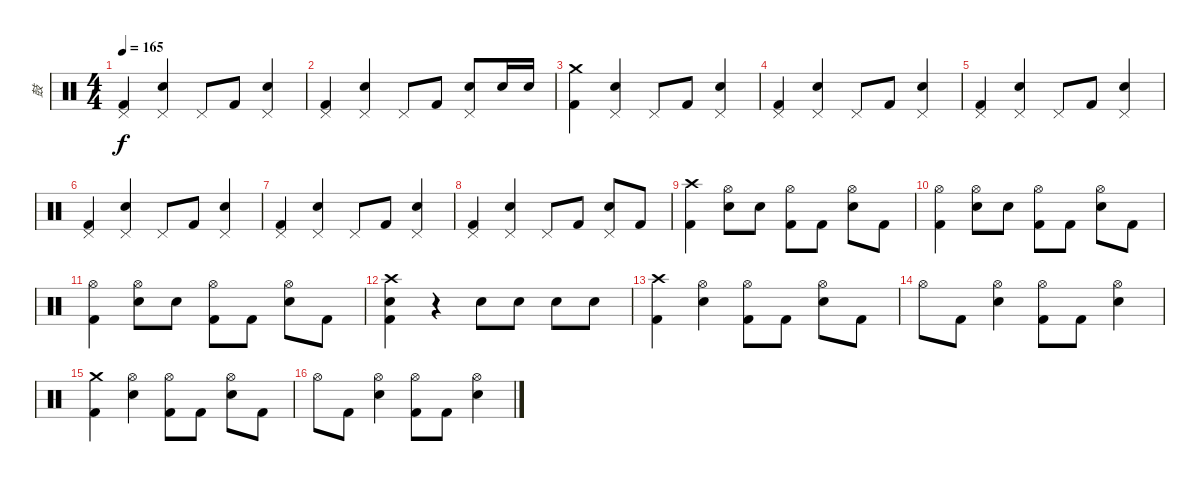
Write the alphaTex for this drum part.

\track ("鼓" "鼓") {instrument percussion}
\staff {score}
\articulation defaults
\ts (4 4)
\tempo 165
\clef neutral
\ks c
("Pedal Hi-Hat (hit)" "Kick (hit) 2").4{dy f} ("Pedal Hi-Hat (hit)" "Snare (hit) 2").4 "Pedal Hi-Hat (hit)".8 "Kick (hit) 2".8 ("Pedal Hi-Hat (hit)" "Snare (hit) 2").4 |
("Pedal Hi-Hat (hit)" "Kick (hit) 2").4 ("Pedal Hi-Hat (hit)" "Snare (hit) 2").4 "Pedal Hi-Hat (hit)".8 "Kick (hit) 2".8 ("Pedal Hi-Hat (hit)" "Snare (hit) 2").8 "Snare (hit) 2".16 "Snare (hit) 2".16 |
("Crash medium (hit)" "Kick (hit) 2").4 ("Pedal Hi-Hat (hit)" "Snare (hit) 2").4 "Pedal Hi-Hat (hit)".8 "Kick (hit) 2".8 ("Pedal Hi-Hat (hit)" "Snare (hit) 2").4 |
("Pedal Hi-Hat (hit)" "Kick (hit) 2").4 ("Pedal Hi-Hat (hit)" "Snare (hit) 2").4 "Pedal Hi-Hat (hit)".8 "Kick (hit) 2".8 ("Pedal Hi-Hat (hit)" "Snare (hit) 2").4 |
("Pedal Hi-Hat (hit)" "Kick (hit) 2").4 ("Pedal Hi-Hat (hit)" "Snare (hit) 2").4 "Pedal Hi-Hat (hit)".8 "Kick (hit) 2".8 ("Pedal Hi-Hat (hit)" "Snare (hit) 2").4 |
("Pedal Hi-Hat (hit)" "Kick (hit) 2").4 ("Pedal Hi-Hat (hit)" "Snare (hit) 2").4 "Pedal Hi-Hat (hit)".8 "Kick (hit) 2".8 ("Pedal Hi-Hat (hit)" "Snare (hit) 2").4 |
("Pedal Hi-Hat (hit)" "Kick (hit) 2").4 ("Pedal Hi-Hat (hit)" "Snare (hit) 2").4 "Pedal Hi-Hat (hit)".8 "Kick (hit) 2".8 ("Pedal Hi-Hat (hit)" "Snare (hit) 2").4 |
("Pedal Hi-Hat (hit)" "Kick (hit) 2").4 ("Pedal Hi-Hat (hit)" "Snare (hit) 2").4 "Pedal Hi-Hat (hit)".8 "Kick (hit) 2".8 ("Pedal Hi-Hat (hit)" "Snare (hit) 2").8 "Kick (hit) 2".8 |
("Crash high (hit)" "Kick (hit) 2").4 ("Hi-Hat (open)" "Snare (hit) 2").8 "Snare (hit) 2".8 ("Hi-Hat (open)" "Kick (hit) 2").8 "Kick (hit) 2".8 ("Hi-Hat (open)" "Snare (hit) 2").8 "Kick (hit) 2".8 |
("Hi-Hat (open)" "Kick (hit) 2").4 ("Hi-Hat (open)" "Snare (hit) 2").8 "Snare (hit) 2".8 ("Hi-Hat (open)" "Kick (hit) 2").8 "Kick (hit) 2".8 ("Hi-Hat (open)" "Snare (hit) 2").8 "Kick (hit) 2".8 |
("Hi-Hat (open)" "Kick (hit) 2").4 ("Hi-Hat (open)" "Snare (hit) 2").8 "Snare (hit) 2".8 ("Hi-Hat (open)" "Kick (hit) 2").8 "Kick (hit) 2".8 ("Hi-Hat (open)" "Snare (hit) 2").8 "Kick (hit) 2".8 |
("Crash high (hit)" "Snare (hit) 2" "Kick (hit) 2").4 r.4 "Snare (hit) 2".8 "Snare (hit) 2".8 "Snare (hit) 2".8 "Snare (hit) 2".8 |
("Crash high (hit)" "Kick (hit) 2").4 ("Hi-Hat (open)" "Snare (hit) 2").4 ("Hi-Hat (open)" "Kick (hit) 2").8 "Kick (hit) 2".8 ("Hi-Hat (open)" "Snare (hit) 2").8 "Kick (hit) 2".8 |
"Hi-Hat (open)".8 "Kick (hit) 2".8 ("Hi-Hat (open)" "Snare (hit) 2").4 ("Hi-Hat (open)" "Kick (hit) 2").8 "Kick (hit) 2".8 ("Hi-Hat (open)" "Snare (hit) 2").4 |
("Crash medium (hit)" "Kick (hit) 2").4 ("Hi-Hat (open)" "Snare (hit) 2").4 ("Hi-Hat (open)" "Kick (hit) 2").8 "Kick (hit) 2".8 ("Hi-Hat (open)" "Snare (hit) 2").8 "Kick (hit) 2".8 |
"Hi-Hat (open)".8 "Kick (hit) 2".8 ("Hi-Hat (open)" "Snare (hit) 2").4 ("Hi-Hat (open)" "Kick (hit) 2").8 "Kick (hit) 2".8 ("Hi-Hat (open)" "Snare (hit) 2").4
